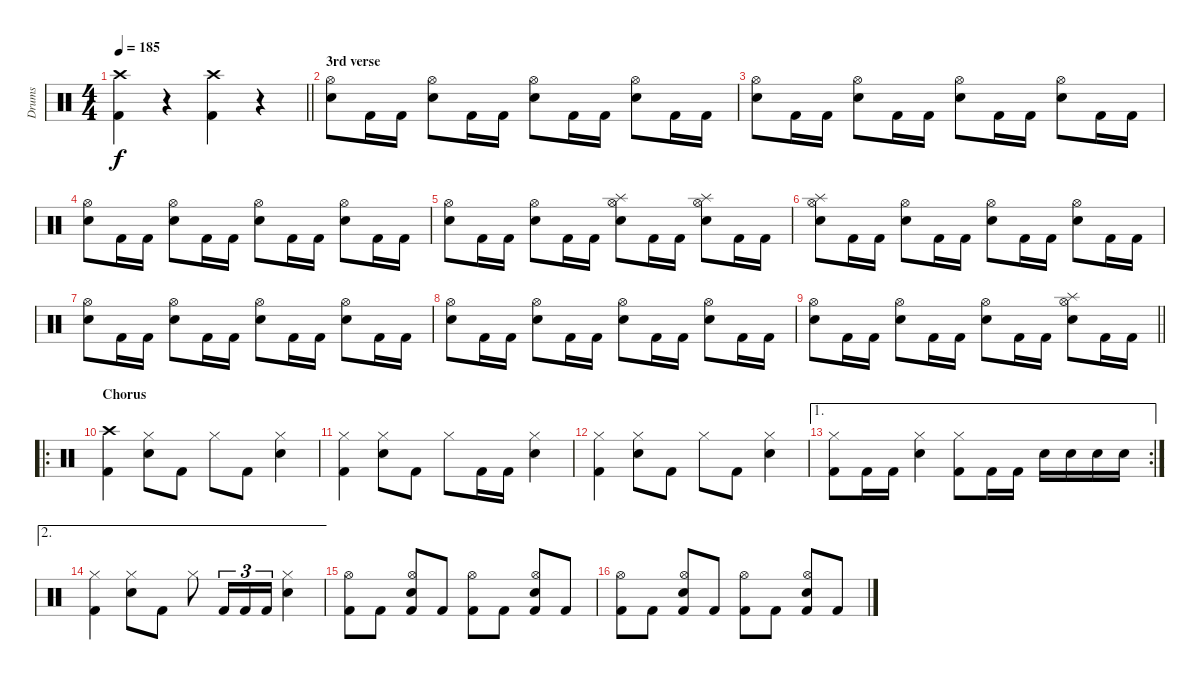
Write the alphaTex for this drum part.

\track ("Drums" "Drums") {instrument percussion}
\staff {score}
\articulation defaults
\ts (4 4)
\tempo 185
\clef neutral
\barLineRight lightlight
\ks c
("Crash high (hit)" "Kick (hit) 2").4{dy f} r.4 ("Crash high (hit)" "Kick (hit) 2").4 r.4 |
\section ("" "3rd verse")
("Hi-Hat (open)" "Snare (hit) 2").8 "Kick (hit) 2".16 "Kick (hit) 2".16 ("Hi-Hat (open)" "Snare (hit) 2").8 "Kick (hit) 2".16 "Kick (hit) 2".16 ("Hi-Hat (open)" "Snare (hit) 2").8 "Kick (hit) 2".16 "Kick (hit) 2".16 ("Hi-Hat (open)" "Snare (hit) 2").8 "Kick (hit) 2".16 "Kick (hit) 2".16 |
("Hi-Hat (open)" "Snare (hit) 2").8 "Kick (hit) 2".16 "Kick (hit) 2".16 ("Hi-Hat (open)" "Snare (hit) 2").8 "Kick (hit) 2".16 "Kick (hit) 2".16 ("Hi-Hat (open)" "Snare (hit) 2").8 "Kick (hit) 2".16 "Kick (hit) 2".16 ("Hi-Hat (open)" "Snare (hit) 2").8 "Kick (hit) 2".16 "Kick (hit) 2".16 |
("Hi-Hat (open)" "Snare (hit) 2").8 "Kick (hit) 2".16 "Kick (hit) 2".16 ("Hi-Hat (open)" "Snare (hit) 2").8 "Kick (hit) 2".16 "Kick (hit) 2".16 ("Hi-Hat (open)" "Snare (hit) 2").8 "Kick (hit) 2".16 "Kick (hit) 2".16 ("Hi-Hat (open)" "Snare (hit) 2").8 "Kick (hit) 2".16 "Kick (hit) 2".16 |
("Hi-Hat (open)" "Snare (hit) 2").8 "Kick (hit) 2".16 "Kick (hit) 2".16 ("Hi-Hat (open)" "Snare (hit) 2").8 "Kick (hit) 2".16 "Kick (hit) 2".16 ("Hi-Hat (open)" "Snare (hit) 2" "Splash (hit)").8 "Kick (hit) 2".16 "Kick (hit) 2".16 ("Hi-Hat (open)" "Snare (hit) 2" "Splash (hit)").8 "Kick (hit) 2".16 "Kick (hit) 2".16 |
("Hi-Hat (open)" "Snare (hit) 2" "Splash (hit)").8 "Kick (hit) 2".16 "Kick (hit) 2".16 ("Hi-Hat (open)" "Snare (hit) 2").8 "Kick (hit) 2".16 "Kick (hit) 2".16 ("Hi-Hat (open)" "Snare (hit) 2").8 "Kick (hit) 2".16 "Kick (hit) 2".16 ("Hi-Hat (open)" "Snare (hit) 2").8 "Kick (hit) 2".16 "Kick (hit) 2".16 |
("Hi-Hat (open)" "Snare (hit) 2").8 "Kick (hit) 2".16 "Kick (hit) 2".16 ("Hi-Hat (open)" "Snare (hit) 2").8 "Kick (hit) 2".16 "Kick (hit) 2".16 ("Hi-Hat (open)" "Snare (hit) 2").8 "Kick (hit) 2".16 "Kick (hit) 2".16 ("Hi-Hat (open)" "Snare (hit) 2").8 "Kick (hit) 2".16 "Kick (hit) 2".16 |
("Hi-Hat (open)" "Snare (hit) 2").8 "Kick (hit) 2".16 "Kick (hit) 2".16 ("Hi-Hat (open)" "Snare (hit) 2").8 "Kick (hit) 2".16 "Kick (hit) 2".16 ("Hi-Hat (open)" "Snare (hit) 2").8 "Kick (hit) 2".16 "Kick (hit) 2".16 ("Hi-Hat (open)" "Snare (hit) 2").8 "Kick (hit) 2".16 "Kick (hit) 2".16 |
\barLineRight lightlight
("Hi-Hat (open)" "Snare (hit) 2").8 "Kick (hit) 2".16 "Kick (hit) 2".16 ("Hi-Hat (open)" "Snare (hit) 2").8 "Kick (hit) 2".16 "Kick (hit) 2".16 ("Hi-Hat (open)" "Snare (hit) 2").8 "Kick (hit) 2".16 "Kick (hit) 2".16 ("Hi-Hat (open)" "Snare (hit) 2" "Splash (hit)").8 "Kick (hit) 2".16 "Kick (hit) 2".16 |
\ro
\section ("" "Chorus")
("Kick (hit) 2" "Crash high (hit)").4 ("Snare (hit) 2" "Hi-Hat (closed)").8 "Kick (hit) 2".8 "Hi-Hat (closed)".8 "Kick (hit) 2".8 ("Snare (hit) 2" "Hi-Hat (closed)").4 |
("Kick (hit) 2" "Hi-Hat (closed)").4 ("Snare (hit) 2" "Hi-Hat (closed)").8 "Kick (hit) 2".8 "Hi-Hat (closed)".8 "Kick (hit) 2".16 "Kick (hit) 2".16 ("Snare (hit) 2" "Hi-Hat (closed)").4 |
("Kick (hit) 2" "Hi-Hat (closed)").4 ("Snare (hit) 2" "Hi-Hat (closed)").8 "Kick (hit) 2".8 "Hi-Hat (closed)".8 "Kick (hit) 2".8 ("Snare (hit) 2" "Hi-Hat (closed)").4 |
\ae 1
\rc 2
("Hi-Hat (closed)" "Kick (hit) 2").8 "Kick (hit) 2".16 "Kick (hit) 2".16 ("Hi-Hat (closed)" "Snare (hit) 2").4 ("Hi-Hat (closed)" "Kick (hit) 2").8 "Kick (hit) 2".16 "Kick (hit) 2".16 "Snare (hit) 2".16 "Snare (hit) 2".16 "Snare (hit) 2".16 "Snare (hit) 2".16 |
\ae 2
("Kick (hit) 2" "Hi-Hat (closed)").4 ("Snare (hit) 2" "Hi-Hat (closed)").8 "Kick (hit) 2".8 "Hi-Hat (closed)".8 "Kick (hit) 2".16{tu (3 2)} "Kick (hit) 2".16{tu (3 2)} "Kick (hit) 2".16{tu (3 2)} ("Snare (hit) 2" "Hi-Hat (closed)").4 |
("Kick (hit) 2" "Hi-Hat (open)").8 "Kick (hit) 2".8 ("Snare (hit) 2" "Hi-Hat (open)" "Kick (hit) 2").8 "Kick (hit) 2".8 ("Hi-Hat (open)" "Kick (hit) 2").8 "Kick (hit) 2".8 ("Snare (hit) 2" "Hi-Hat (open)" "Kick (hit) 2").8 "Kick (hit) 2".8 |
("Kick (hit) 2" "Hi-Hat (open)").8 "Kick (hit) 2".8 ("Snare (hit) 2" "Hi-Hat (open)" "Kick (hit) 2").8 "Kick (hit) 2".8 ("Hi-Hat (open)" "Kick (hit) 2").8 "Kick (hit) 2".8 ("Snare (hit) 2" "Hi-Hat (open)" "Kick (hit) 2").8 "Kick (hit) 2".8
